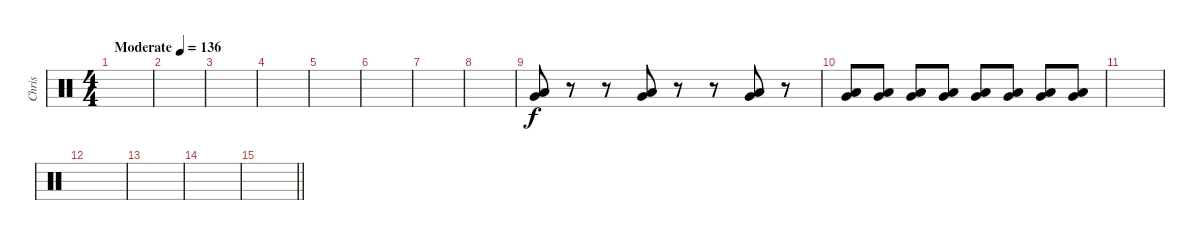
\track ("Chris" "Chris") {instrument percussion}
\staff {score}
\articulation defaults
\ts (4 4)
\tempo (136 "Moderate")
\clef neutral
\ks c
|
|
|
|
|
|
|
|
("Very Low Tom (hit)" "Low Floor Tom (hit)").8 r.8 r.8 ("Very Low Tom (hit)" "Low Floor Tom (hit)").8 r.8 r.8 ("Very Low Tom (hit)" "Low Floor Tom (hit)").8 r.8 |
("Very Low Tom (hit)" "Low Floor Tom (hit)").8 ("Very Low Tom (hit)" "Low Floor Tom (hit)").8 ("Very Low Tom (hit)" "Low Floor Tom (hit)").8 ("Very Low Tom (hit)" "Low Floor Tom (hit)").8 ("Very Low Tom (hit)" "Low Floor Tom (hit)").8 ("Very Low Tom (hit)" "Low Floor Tom (hit)").8 ("Very Low Tom (hit)" "Low Floor Tom (hit)").8 ("Very Low Tom (hit)" "Low Floor Tom (hit)").8 |
|
|
|
|
\barLineRight lightlight
